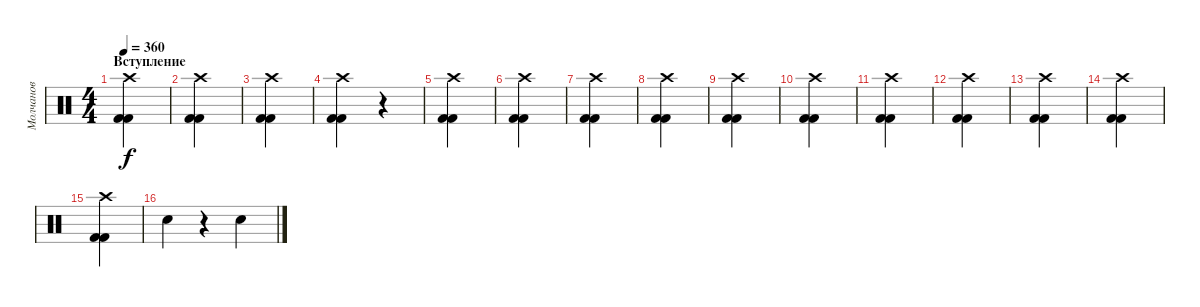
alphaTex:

\track ("Молчанов" "Молчанов") {instrument percussion}
\staff {score}
\articulation defaults
\ts (4 4)
\section ("" "Вступление")
\tempo 360
\clef neutral
\ks c
("Kick (hit) 2" "Kick (hit) 2" "Crash high (hit)").4{dy f} |
("Kick (hit) 2" "Kick (hit) 2" "Crash high (hit)").4 |
("Kick (hit) 2" "Kick (hit) 2" "Crash high (hit)").4 |
("Kick (hit) 2" "Kick (hit) 2" "Crash high (hit)").4 r.4 |
("Kick (hit) 2" "Kick (hit) 2" "Crash high (hit)").4 |
("Kick (hit) 2" "Kick (hit) 2" "Crash high (hit)").4 |
("Kick (hit) 2" "Kick (hit) 2" "Crash high (hit)").4 |
("Kick (hit) 2" "Kick (hit) 2" "Crash high (hit)").4 |
("Kick (hit) 2" "Kick (hit) 2" "Crash high (hit)").4 |
("Kick (hit) 2" "Kick (hit) 2" "Crash high (hit)").4 |
("Kick (hit) 2" "Kick (hit) 2" "Crash high (hit)").4 |
("Kick (hit) 2" "Kick (hit) 2" "Crash high (hit)").4 |
("Kick (hit) 2" "Kick (hit) 2" "Crash high (hit)").4 |
("Kick (hit) 2" "Kick (hit) 2" "Crash high (hit)").4 |
("Kick (hit) 2" "Kick (hit) 2" "Crash high (hit)").4 |
"Electric Snare (hit)".4 r.4 "Electric Snare (hit)".4
